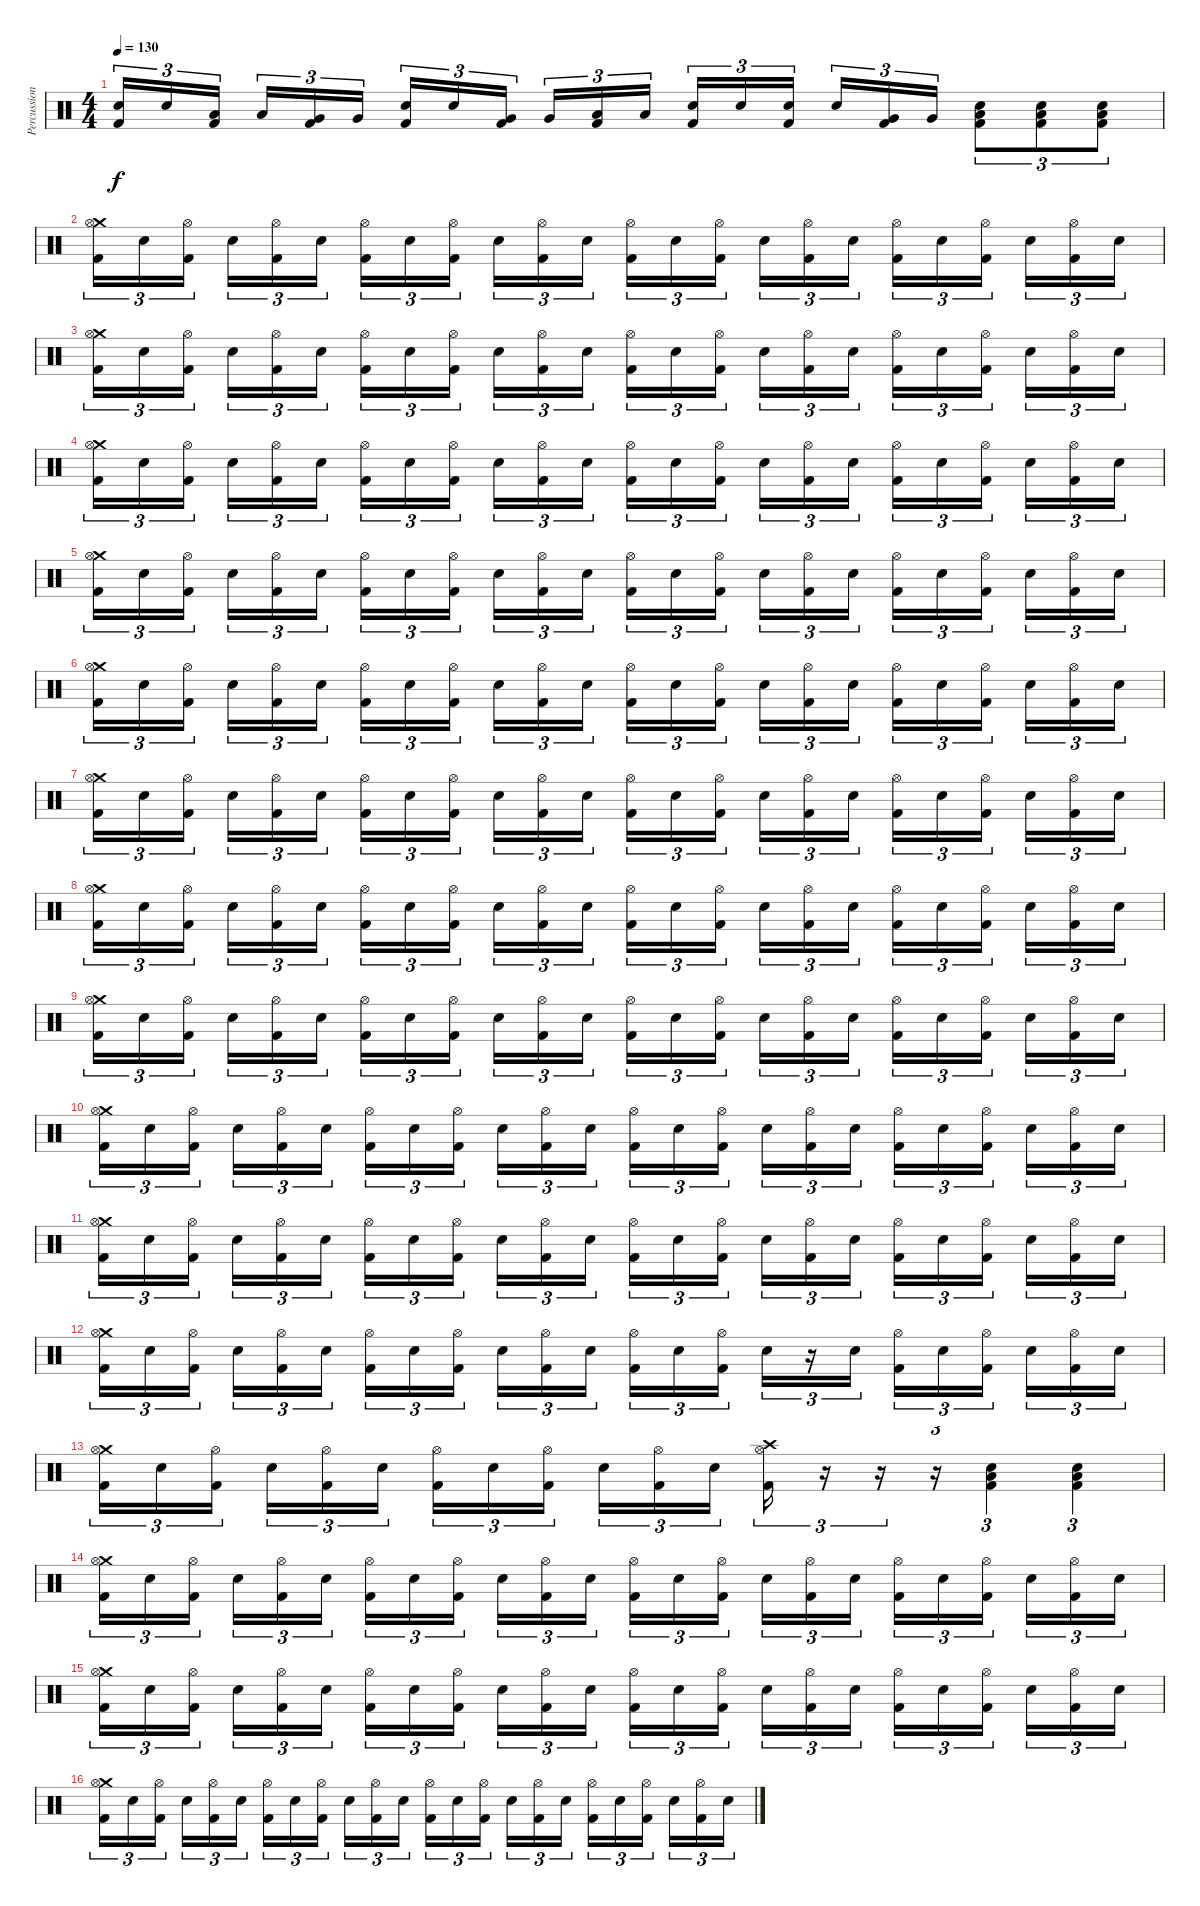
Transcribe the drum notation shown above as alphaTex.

\track ("Percussion" "Percussion") {instrument percussion}
\staff {score}
\articulation defaults
\ts (4 4)
\tempo 130
\clef neutral
\ks c
("Snare (hit) 2" "Kick (hit) 2").16{tu (3 2) dy f} "Snare (hit) 2".16{tu (3 2)} ("Low Tom (hit)" "Kick (hit) 2").16{tu (3 2)} "Low Tom (hit)".16{tu (3 2)} ("Very Low Tom (hit)" "Kick (hit) 2").16{tu (3 2)} "Very Low Tom (hit)".16{tu (3 2)} ("Snare (hit) 2" "Kick (hit) 2").16{tu (3 2)} "Snare (hit) 2".16{tu (3 2)} ("Very Low Tom (hit)" "Kick (hit) 2").16{tu (3 2)} "Very Low Tom (hit)".16{tu (3 2)} ("Low Floor Tom (hit)" "Kick (hit) 2").16{tu (3 2)} "Low Floor Tom (hit)".16{tu (3 2)} ("Snare (hit) 2" "Kick (hit) 2").16{tu (3 2)} "Snare (hit) 2".16{tu (3 2)} ("Snare (hit) 2" "Kick (hit) 2").16{tu (3 2)} "Snare (hit) 2".16{tu (3 2)} ("Very Low Tom (hit)" "Kick (hit) 2").16{tu (3 2)} "Very Low Tom (hit)".16{tu (3 2)} ("Snare (hit) 2" "Low Floor Tom (hit)" "Kick (hit) 2").8{tu (3 2)} ("Snare (hit) 2" "Low Floor Tom (hit)" "Kick (hit) 2").8{tu (3 2)} ("Snare (hit) 2" "Low Floor Tom (hit)" "Kick (hit) 2").8{tu (3 2)} |
("Crash medium (hit)" "Hi-Hat (open)" "Kick (hit) 2").16{tu (3 2)} "Snare (hit) 2".16{tu (3 2)} ("Hi-Hat (open)" "Kick (hit) 2").16{tu (3 2)} "Snare (hit) 2".16{tu (3 2)} ("Hi-Hat (open)" "Kick (hit) 2").16{tu (3 2)} "Snare (hit) 2".16{tu (3 2)} ("Hi-Hat (open)" "Kick (hit) 2").16{tu (3 2)} "Snare (hit) 2".16{tu (3 2)} ("Hi-Hat (open)" "Kick (hit) 2").16{tu (3 2)} "Snare (hit) 2".16{tu (3 2)} ("Hi-Hat (open)" "Kick (hit) 2").16{tu (3 2)} "Snare (hit) 2".16{tu (3 2)} ("Hi-Hat (open)" "Kick (hit) 2").16{tu (3 2)} "Snare (hit) 2".16{tu (3 2)} ("Hi-Hat (open)" "Kick (hit) 2").16{tu (3 2)} "Snare (hit) 2".16{tu (3 2)} ("Hi-Hat (open)" "Kick (hit) 2").16{tu (3 2)} "Snare (hit) 2".16{tu (3 2)} ("Hi-Hat (open)" "Kick (hit) 2").16{tu (3 2)} "Snare (hit) 2".16{tu (3 2)} ("Hi-Hat (open)" "Kick (hit) 2").16{tu (3 2)} "Snare (hit) 2".16{tu (3 2)} ("Hi-Hat (open)" "Kick (hit) 2").16{tu (3 2)} "Snare (hit) 2".16{tu (3 2)} |
("Crash medium (hit)" "Hi-Hat (open)" "Kick (hit) 2").16{tu (3 2)} "Snare (hit) 2".16{tu (3 2)} ("Hi-Hat (open)" "Kick (hit) 2").16{tu (3 2)} "Snare (hit) 2".16{tu (3 2)} ("Hi-Hat (open)" "Kick (hit) 2").16{tu (3 2)} "Snare (hit) 2".16{tu (3 2)} ("Hi-Hat (open)" "Kick (hit) 2").16{tu (3 2)} "Snare (hit) 2".16{tu (3 2)} ("Hi-Hat (open)" "Kick (hit) 2").16{tu (3 2)} "Snare (hit) 2".16{tu (3 2)} ("Hi-Hat (open)" "Kick (hit) 2").16{tu (3 2)} "Snare (hit) 2".16{tu (3 2)} ("Hi-Hat (open)" "Kick (hit) 2").16{tu (3 2)} "Snare (hit) 2".16{tu (3 2)} ("Hi-Hat (open)" "Kick (hit) 2").16{tu (3 2)} "Snare (hit) 2".16{tu (3 2)} ("Hi-Hat (open)" "Kick (hit) 2").16{tu (3 2)} "Snare (hit) 2".16{tu (3 2)} ("Hi-Hat (open)" "Kick (hit) 2").16{tu (3 2)} "Snare (hit) 2".16{tu (3 2)} ("Hi-Hat (open)" "Kick (hit) 2").16{tu (3 2)} "Snare (hit) 2".16{tu (3 2)} ("Hi-Hat (open)" "Kick (hit) 2").16{tu (3 2)} "Snare (hit) 2".16{tu (3 2)} |
("Crash medium (hit)" "Hi-Hat (open)" "Kick (hit) 2").16{tu (3 2)} "Snare (hit) 2".16{tu (3 2)} ("Hi-Hat (open)" "Kick (hit) 2").16{tu (3 2)} "Snare (hit) 2".16{tu (3 2)} ("Hi-Hat (open)" "Kick (hit) 2").16{tu (3 2)} "Snare (hit) 2".16{tu (3 2)} ("Hi-Hat (open)" "Kick (hit) 2").16{tu (3 2)} "Snare (hit) 2".16{tu (3 2)} ("Hi-Hat (open)" "Kick (hit) 2").16{tu (3 2)} "Snare (hit) 2".16{tu (3 2)} ("Hi-Hat (open)" "Kick (hit) 2").16{tu (3 2)} "Snare (hit) 2".16{tu (3 2)} ("Hi-Hat (open)" "Kick (hit) 2").16{tu (3 2)} "Snare (hit) 2".16{tu (3 2)} ("Hi-Hat (open)" "Kick (hit) 2").16{tu (3 2)} "Snare (hit) 2".16{tu (3 2)} ("Hi-Hat (open)" "Kick (hit) 2").16{tu (3 2)} "Snare (hit) 2".16{tu (3 2)} ("Hi-Hat (open)" "Kick (hit) 2").16{tu (3 2)} "Snare (hit) 2".16{tu (3 2)} ("Hi-Hat (open)" "Kick (hit) 2").16{tu (3 2)} "Snare (hit) 2".16{tu (3 2)} ("Hi-Hat (open)" "Kick (hit) 2").16{tu (3 2)} "Snare (hit) 2".16{tu (3 2)} |
("Crash medium (hit)" "Hi-Hat (open)" "Kick (hit) 2").16{tu (3 2)} "Snare (hit) 2".16{tu (3 2)} ("Hi-Hat (open)" "Kick (hit) 2").16{tu (3 2)} "Snare (hit) 2".16{tu (3 2)} ("Hi-Hat (open)" "Kick (hit) 2").16{tu (3 2)} "Snare (hit) 2".16{tu (3 2)} ("Hi-Hat (open)" "Kick (hit) 2").16{tu (3 2)} "Snare (hit) 2".16{tu (3 2)} ("Hi-Hat (open)" "Kick (hit) 2").16{tu (3 2)} "Snare (hit) 2".16{tu (3 2)} ("Hi-Hat (open)" "Kick (hit) 2").16{tu (3 2)} "Snare (hit) 2".16{tu (3 2)} ("Hi-Hat (open)" "Kick (hit) 2").16{tu (3 2)} "Snare (hit) 2".16{tu (3 2)} ("Hi-Hat (open)" "Kick (hit) 2").16{tu (3 2)} "Snare (hit) 2".16{tu (3 2)} ("Hi-Hat (open)" "Kick (hit) 2").16{tu (3 2)} "Snare (hit) 2".16{tu (3 2)} ("Hi-Hat (open)" "Kick (hit) 2").16{tu (3 2)} "Snare (hit) 2".16{tu (3 2)} ("Hi-Hat (open)" "Kick (hit) 2").16{tu (3 2)} "Snare (hit) 2".16{tu (3 2)} ("Hi-Hat (open)" "Kick (hit) 2").16{tu (3 2)} "Snare (hit) 2".16{tu (3 2)} |
("Crash medium (hit)" "Hi-Hat (open)" "Kick (hit) 2").16{tu (3 2)} "Snare (hit) 2".16{tu (3 2)} ("Hi-Hat (open)" "Kick (hit) 2").16{tu (3 2)} "Snare (hit) 2".16{tu (3 2)} ("Hi-Hat (open)" "Kick (hit) 2").16{tu (3 2)} "Snare (hit) 2".16{tu (3 2)} ("Hi-Hat (open)" "Kick (hit) 2").16{tu (3 2)} "Snare (hit) 2".16{tu (3 2)} ("Hi-Hat (open)" "Kick (hit) 2").16{tu (3 2)} "Snare (hit) 2".16{tu (3 2)} ("Hi-Hat (open)" "Kick (hit) 2").16{tu (3 2)} "Snare (hit) 2".16{tu (3 2)} ("Hi-Hat (open)" "Kick (hit) 2").16{tu (3 2)} "Snare (hit) 2".16{tu (3 2)} ("Hi-Hat (open)" "Kick (hit) 2").16{tu (3 2)} "Snare (hit) 2".16{tu (3 2)} ("Hi-Hat (open)" "Kick (hit) 2").16{tu (3 2)} "Snare (hit) 2".16{tu (3 2)} ("Hi-Hat (open)" "Kick (hit) 2").16{tu (3 2)} "Snare (hit) 2".16{tu (3 2)} ("Hi-Hat (open)" "Kick (hit) 2").16{tu (3 2)} "Snare (hit) 2".16{tu (3 2)} ("Hi-Hat (open)" "Kick (hit) 2").16{tu (3 2)} "Snare (hit) 2".16{tu (3 2)} |
("Crash medium (hit)" "Hi-Hat (open)" "Kick (hit) 2").16{tu (3 2)} "Snare (hit) 2".16{tu (3 2)} ("Hi-Hat (open)" "Kick (hit) 2").16{tu (3 2)} "Snare (hit) 2".16{tu (3 2)} ("Hi-Hat (open)" "Kick (hit) 2").16{tu (3 2)} "Snare (hit) 2".16{tu (3 2)} ("Hi-Hat (open)" "Kick (hit) 2").16{tu (3 2)} "Snare (hit) 2".16{tu (3 2)} ("Hi-Hat (open)" "Kick (hit) 2").16{tu (3 2)} "Snare (hit) 2".16{tu (3 2)} ("Hi-Hat (open)" "Kick (hit) 2").16{tu (3 2)} "Snare (hit) 2".16{tu (3 2)} ("Hi-Hat (open)" "Kick (hit) 2").16{tu (3 2)} "Snare (hit) 2".16{tu (3 2)} ("Hi-Hat (open)" "Kick (hit) 2").16{tu (3 2)} "Snare (hit) 2".16{tu (3 2)} ("Hi-Hat (open)" "Kick (hit) 2").16{tu (3 2)} "Snare (hit) 2".16{tu (3 2)} ("Hi-Hat (open)" "Kick (hit) 2").16{tu (3 2)} "Snare (hit) 2".16{tu (3 2)} ("Hi-Hat (open)" "Kick (hit) 2").16{tu (3 2)} "Snare (hit) 2".16{tu (3 2)} ("Hi-Hat (open)" "Kick (hit) 2").16{tu (3 2)} "Snare (hit) 2".16{tu (3 2)} |
("Crash medium (hit)" "Hi-Hat (open)" "Kick (hit) 2").16{tu (3 2)} "Snare (hit) 2".16{tu (3 2)} ("Hi-Hat (open)" "Kick (hit) 2").16{tu (3 2)} "Snare (hit) 2".16{tu (3 2)} ("Hi-Hat (open)" "Kick (hit) 2").16{tu (3 2)} "Snare (hit) 2".16{tu (3 2)} ("Hi-Hat (open)" "Kick (hit) 2").16{tu (3 2)} "Snare (hit) 2".16{tu (3 2)} ("Hi-Hat (open)" "Kick (hit) 2").16{tu (3 2)} "Snare (hit) 2".16{tu (3 2)} ("Hi-Hat (open)" "Kick (hit) 2").16{tu (3 2)} "Snare (hit) 2".16{tu (3 2)} ("Hi-Hat (open)" "Kick (hit) 2").16{tu (3 2)} "Snare (hit) 2".16{tu (3 2)} ("Hi-Hat (open)" "Kick (hit) 2").16{tu (3 2)} "Snare (hit) 2".16{tu (3 2)} ("Hi-Hat (open)" "Kick (hit) 2").16{tu (3 2)} "Snare (hit) 2".16{tu (3 2)} ("Hi-Hat (open)" "Kick (hit) 2").16{tu (3 2)} "Snare (hit) 2".16{tu (3 2)} ("Hi-Hat (open)" "Kick (hit) 2").16{tu (3 2)} "Snare (hit) 2".16{tu (3 2)} ("Hi-Hat (open)" "Kick (hit) 2").16{tu (3 2)} "Snare (hit) 2".16{tu (3 2)} |
("Crash medium (hit)" "Hi-Hat (open)" "Kick (hit) 2").16{tu (3 2)} "Snare (hit) 2".16{tu (3 2)} ("Hi-Hat (open)" "Kick (hit) 2").16{tu (3 2)} "Snare (hit) 2".16{tu (3 2)} ("Hi-Hat (open)" "Kick (hit) 2").16{tu (3 2)} "Snare (hit) 2".16{tu (3 2)} ("Hi-Hat (open)" "Kick (hit) 2").16{tu (3 2)} "Snare (hit) 2".16{tu (3 2)} ("Hi-Hat (open)" "Kick (hit) 2").16{tu (3 2)} "Snare (hit) 2".16{tu (3 2)} ("Hi-Hat (open)" "Kick (hit) 2").16{tu (3 2)} "Snare (hit) 2".16{tu (3 2)} ("Hi-Hat (open)" "Kick (hit) 2").16{tu (3 2)} "Snare (hit) 2".16{tu (3 2)} ("Hi-Hat (open)" "Kick (hit) 2").16{tu (3 2)} "Snare (hit) 2".16{tu (3 2)} ("Hi-Hat (open)" "Kick (hit) 2").16{tu (3 2)} "Snare (hit) 2".16{tu (3 2)} ("Hi-Hat (open)" "Kick (hit) 2").16{tu (3 2)} "Snare (hit) 2".16{tu (3 2)} ("Hi-Hat (open)" "Kick (hit) 2").16{tu (3 2)} "Snare (hit) 2".16{tu (3 2)} ("Hi-Hat (open)" "Kick (hit) 2").16{tu (3 2)} "Snare (hit) 2".16{tu (3 2)} |
("Crash medium (hit)" "Hi-Hat (open)" "Kick (hit) 2").16{tu (3 2)} "Snare (hit) 2".16{tu (3 2)} ("Hi-Hat (open)" "Kick (hit) 2").16{tu (3 2)} "Snare (hit) 2".16{tu (3 2)} ("Hi-Hat (open)" "Kick (hit) 2").16{tu (3 2)} "Snare (hit) 2".16{tu (3 2)} ("Hi-Hat (open)" "Kick (hit) 2").16{tu (3 2)} "Snare (hit) 2".16{tu (3 2)} ("Hi-Hat (open)" "Kick (hit) 2").16{tu (3 2)} "Snare (hit) 2".16{tu (3 2)} ("Hi-Hat (open)" "Kick (hit) 2").16{tu (3 2)} "Snare (hit) 2".16{tu (3 2)} ("Hi-Hat (open)" "Kick (hit) 2").16{tu (3 2)} "Snare (hit) 2".16{tu (3 2)} ("Hi-Hat (open)" "Kick (hit) 2").16{tu (3 2)} "Snare (hit) 2".16{tu (3 2)} ("Hi-Hat (open)" "Kick (hit) 2").16{tu (3 2)} "Snare (hit) 2".16{tu (3 2)} ("Hi-Hat (open)" "Kick (hit) 2").16{tu (3 2)} "Snare (hit) 2".16{tu (3 2)} ("Hi-Hat (open)" "Kick (hit) 2").16{tu (3 2)} "Snare (hit) 2".16{tu (3 2)} ("Hi-Hat (open)" "Kick (hit) 2").16{tu (3 2)} "Snare (hit) 2".16{tu (3 2)} |
("Crash medium (hit)" "Hi-Hat (open)" "Kick (hit) 2").16{tu (3 2)} "Snare (hit) 2".16{tu (3 2)} ("Hi-Hat (open)" "Kick (hit) 2").16{tu (3 2)} "Snare (hit) 2".16{tu (3 2)} ("Hi-Hat (open)" "Kick (hit) 2").16{tu (3 2)} "Snare (hit) 2".16{tu (3 2)} ("Hi-Hat (open)" "Kick (hit) 2").16{tu (3 2)} "Snare (hit) 2".16{tu (3 2)} ("Hi-Hat (open)" "Kick (hit) 2").16{tu (3 2)} "Snare (hit) 2".16{tu (3 2)} ("Hi-Hat (open)" "Kick (hit) 2").16{tu (3 2)} "Snare (hit) 2".16{tu (3 2)} ("Hi-Hat (open)" "Kick (hit) 2").16{tu (3 2)} "Snare (hit) 2".16{tu (3 2)} ("Hi-Hat (open)" "Kick (hit) 2").16{tu (3 2)} "Snare (hit) 2".16{tu (3 2)} ("Hi-Hat (open)" "Kick (hit) 2").16{tu (3 2)} "Snare (hit) 2".16{tu (3 2)} ("Hi-Hat (open)" "Kick (hit) 2").16{tu (3 2)} "Snare (hit) 2".16{tu (3 2)} ("Hi-Hat (open)" "Kick (hit) 2").16{tu (3 2)} "Snare (hit) 2".16{tu (3 2)} ("Hi-Hat (open)" "Kick (hit) 2").16{tu (3 2)} "Snare (hit) 2".16{tu (3 2)} |
("Crash medium (hit)" "Hi-Hat (open)" "Kick (hit) 2").16{tu (3 2)} "Snare (hit) 2".16{tu (3 2)} ("Hi-Hat (open)" "Kick (hit) 2").16{tu (3 2)} "Snare (hit) 2".16{tu (3 2)} ("Hi-Hat (open)" "Kick (hit) 2").16{tu (3 2)} "Snare (hit) 2".16{tu (3 2)} ("Hi-Hat (open)" "Kick (hit) 2").16{tu (3 2)} "Snare (hit) 2".16{tu (3 2)} ("Hi-Hat (open)" "Kick (hit) 2").16{tu (3 2)} "Snare (hit) 2".16{tu (3 2)} ("Hi-Hat (open)" "Kick (hit) 2").16{tu (3 2)} "Snare (hit) 2".16{tu (3 2)} ("Hi-Hat (open)" "Kick (hit) 2").16{tu (3 2)} "Snare (hit) 2".16{tu (3 2)} ("Hi-Hat (open)" "Kick (hit) 2").16{tu (3 2)} "Snare (hit) 2".16{tu (3 2)} r.16{tu (3 2)} "Snare (hit) 2".16{tu (3 2)} ("Hi-Hat (open)" "Kick (hit) 2").16{tu (3 2)} "Snare (hit) 2".16{tu (3 2)} ("Hi-Hat (open)" "Kick (hit) 2").16{tu (3 2)} "Snare (hit) 2".16{tu (3 2)} ("Hi-Hat (open)" "Kick (hit) 2").16{tu (3 2)} "Snare (hit) 2".16{tu (3 2)} |
("Crash medium (hit)" "Hi-Hat (open)" "Kick (hit) 2").16{tu (3 2)} "Snare (hit) 2".16{tu (3 2)} ("Hi-Hat (open)" "Kick (hit) 2").16{tu (3 2)} "Snare (hit) 2".16{tu (3 2)} ("Hi-Hat (open)" "Kick (hit) 2").16{tu (3 2)} "Snare (hit) 2".16{tu (3 2)} ("Hi-Hat (open)" "Kick (hit) 2").16{tu (3 2)} "Snare (hit) 2".16{tu (3 2)} ("Hi-Hat (open)" "Kick (hit) 2").16{tu (3 2)} "Snare (hit) 2".16{tu (3 2)} ("Hi-Hat (open)" "Kick (hit) 2").16{tu (3 2)} "Snare (hit) 2".16{tu (3 2)} ("Crash high (hit)" "Hi-Hat (open)" "Kick (hit) 2").16{tu (3 2)} r.16{tu (3 2)} r.16{tu (3 2)} r.16{tu (3 2)} ("Snare (hit) 2" "Low Floor Tom (hit)" "Kick (hit) 2").4{tu (3 2)} ("Snare (hit) 2" "Low Floor Tom (hit)" "Kick (hit) 2").4{tu (3 2)} |
("Crash medium (hit)" "Hi-Hat (open)" "Kick (hit) 2").16{tu (3 2)} "Snare (hit) 2".16{tu (3 2)} ("Hi-Hat (open)" "Kick (hit) 2").16{tu (3 2)} "Snare (hit) 2".16{tu (3 2)} ("Hi-Hat (open)" "Kick (hit) 2").16{tu (3 2)} "Snare (hit) 2".16{tu (3 2)} ("Hi-Hat (open)" "Kick (hit) 2").16{tu (3 2)} "Snare (hit) 2".16{tu (3 2)} ("Hi-Hat (open)" "Kick (hit) 2").16{tu (3 2)} "Snare (hit) 2".16{tu (3 2)} ("Hi-Hat (open)" "Kick (hit) 2").16{tu (3 2)} "Snare (hit) 2".16{tu (3 2)} ("Hi-Hat (open)" "Kick (hit) 2").16{tu (3 2)} "Snare (hit) 2".16{tu (3 2)} ("Hi-Hat (open)" "Kick (hit) 2").16{tu (3 2)} "Snare (hit) 2".16{tu (3 2)} ("Hi-Hat (open)" "Kick (hit) 2").16{tu (3 2)} "Snare (hit) 2".16{tu (3 2)} ("Hi-Hat (open)" "Kick (hit) 2").16{tu (3 2)} "Snare (hit) 2".16{tu (3 2)} ("Hi-Hat (open)" "Kick (hit) 2").16{tu (3 2)} "Snare (hit) 2".16{tu (3 2)} ("Hi-Hat (open)" "Kick (hit) 2").16{tu (3 2)} "Snare (hit) 2".16{tu (3 2)} |
("Crash medium (hit)" "Hi-Hat (open)" "Kick (hit) 2").16{tu (3 2)} "Snare (hit) 2".16{tu (3 2)} ("Hi-Hat (open)" "Kick (hit) 2").16{tu (3 2)} "Snare (hit) 2".16{tu (3 2)} ("Hi-Hat (open)" "Kick (hit) 2").16{tu (3 2)} "Snare (hit) 2".16{tu (3 2)} ("Hi-Hat (open)" "Kick (hit) 2").16{tu (3 2)} "Snare (hit) 2".16{tu (3 2)} ("Hi-Hat (open)" "Kick (hit) 2").16{tu (3 2)} "Snare (hit) 2".16{tu (3 2)} ("Hi-Hat (open)" "Kick (hit) 2").16{tu (3 2)} "Snare (hit) 2".16{tu (3 2)} ("Hi-Hat (open)" "Kick (hit) 2").16{tu (3 2)} "Snare (hit) 2".16{tu (3 2)} ("Hi-Hat (open)" "Kick (hit) 2").16{tu (3 2)} "Snare (hit) 2".16{tu (3 2)} ("Hi-Hat (open)" "Kick (hit) 2").16{tu (3 2)} "Snare (hit) 2".16{tu (3 2)} ("Hi-Hat (open)" "Kick (hit) 2").16{tu (3 2)} "Snare (hit) 2".16{tu (3 2)} ("Hi-Hat (open)" "Kick (hit) 2").16{tu (3 2)} "Snare (hit) 2".16{tu (3 2)} ("Hi-Hat (open)" "Kick (hit) 2").16{tu (3 2)} "Snare (hit) 2".16{tu (3 2)} |
("Crash medium (hit)" "Hi-Hat (open)" "Kick (hit) 2").16{tu (3 2)} "Snare (hit) 2".16{tu (3 2)} ("Hi-Hat (open)" "Kick (hit) 2").16{tu (3 2)} "Snare (hit) 2".16{tu (3 2)} ("Hi-Hat (open)" "Kick (hit) 2").16{tu (3 2)} "Snare (hit) 2".16{tu (3 2)} ("Hi-Hat (open)" "Kick (hit) 2").16{tu (3 2)} "Snare (hit) 2".16{tu (3 2)} ("Hi-Hat (open)" "Kick (hit) 2").16{tu (3 2)} "Snare (hit) 2".16{tu (3 2)} ("Hi-Hat (open)" "Kick (hit) 2").16{tu (3 2)} "Snare (hit) 2".16{tu (3 2)} ("Hi-Hat (open)" "Kick (hit) 2").16{tu (3 2)} "Snare (hit) 2".16{tu (3 2)} ("Hi-Hat (open)" "Kick (hit) 2").16{tu (3 2)} "Snare (hit) 2".16{tu (3 2)} ("Hi-Hat (open)" "Kick (hit) 2").16{tu (3 2)} "Snare (hit) 2".16{tu (3 2)} ("Hi-Hat (open)" "Kick (hit) 2").16{tu (3 2)} "Snare (hit) 2".16{tu (3 2)} ("Hi-Hat (open)" "Kick (hit) 2").16{tu (3 2)} "Snare (hit) 2".16{tu (3 2)} ("Hi-Hat (open)" "Kick (hit) 2").16{tu (3 2)} "Snare (hit) 2".16{tu (3 2)}
